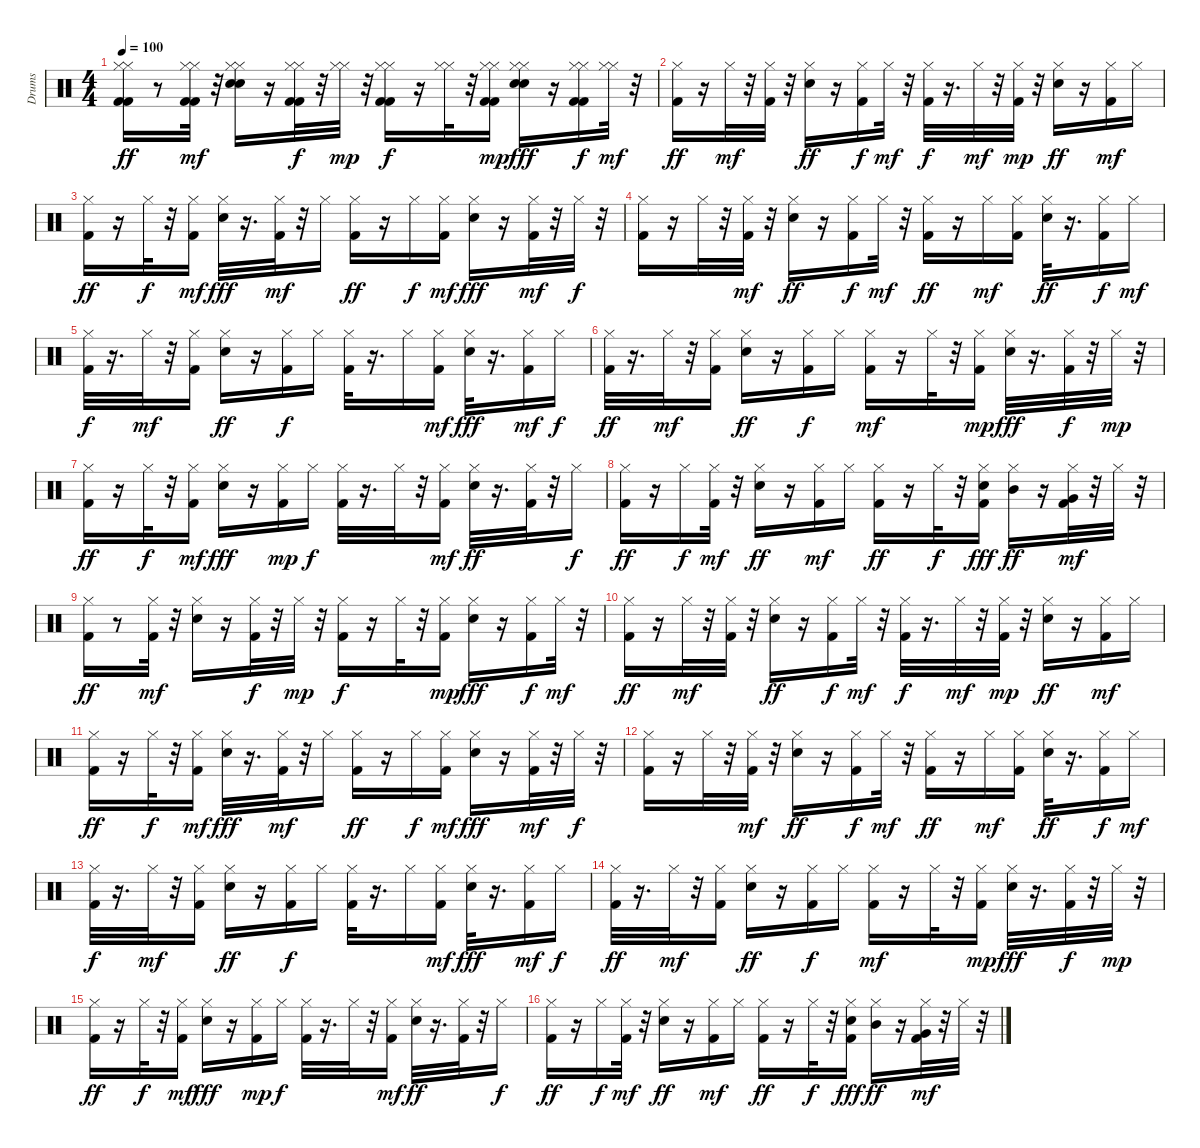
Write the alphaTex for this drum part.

\track ("Drums" "Drums") {instrument percussion}
\staff {score}
\articulation defaults
\ts (4 4)
\tempo 100
\clef neutral
\ks c
("Kick (hit) 2" "Kick (hit) 2" "Hi-Hat (closed)" "Hi-Hat (closed)").16{dy ff} r.8 ("Hi-Hat (closed)" "Kick (hit) 2" "Hi-Hat (closed)" "Kick (hit) 2").32{dy mf} r.32 ("Snare (hit) 2" "Snare (hit) 2" "Hi-Hat (closed)" "Hi-Hat (closed)").16 r.16 ("Kick (hit) 2" "Kick (hit) 2" "Hi-Hat (closed)" "Hi-Hat (closed)").32{dy f} r.32 ("Hi-Hat (closed)" "Hi-Hat (closed)").32{dy mp} r.32 ("Kick (hit) 2" "Kick (hit) 2" "Hi-Hat (closed)" "Hi-Hat (closed)").16{dy f} r.16 ("Hi-Hat (closed)" "Hi-Hat (closed)").32 r.32 ("Kick (hit) 2" "Kick (hit) 2" "Hi-Hat (closed)" "Hi-Hat (closed)").16{dy mp} ("Hi-Hat (closed)" "Hi-Hat (closed)" "Snare (hit) 2" "Snare (hit) 2").16{dy fff} r.16 ("Kick (hit) 2" "Kick (hit) 2" "Hi-Hat (closed)" "Hi-Hat (closed)").16{dy f} ("Hi-Hat (closed)" "Hi-Hat (closed)").32{dy mf} r.32 |
("Kick (hit) 2" "Hi-Hat (closed)").16{dy ff} r.16 "Hi-Hat (closed)".32{dy mf} r.32 ("Kick (hit) 2" "Hi-Hat (closed)").32 r.32 ("Hi-Hat (closed)" "Snare (hit) 2").16{dy ff} r.16 ("Kick (hit) 2" "Hi-Hat (closed)").16{dy f} "Hi-Hat (closed)".32{dy mf} r.32 ("Kick (hit) 2" "Hi-Hat (closed)").32{dy f} r.16{d} "Hi-Hat (closed)".32{dy mf} r.32 ("Kick (hit) 2" "Hi-Hat (closed)").32{dy mp} r.32 ("Hi-Hat (closed)" "Snare (hit) 2").16{dy ff} r.16 ("Hi-Hat (closed)" "Kick (hit) 2").16{dy mf} "Hi-Hat (closed)".16 |
("Hi-Hat (closed)" "Kick (hit) 2").16{dy ff} r.16 "Hi-Hat (closed)".32{dy f} r.32 ("Kick (hit) 2" "Hi-Hat (closed)").16{dy mf} ("Hi-Hat (closed)" "Snare (hit) 2").32{dy fff} r.16{d} ("Kick (hit) 2" "Hi-Hat (closed)").32{dy mf} r.32 "Hi-Hat (closed)".16 ("Hi-Hat (closed)" "Kick (hit) 2").16{dy ff} r.16 "Hi-Hat (closed)".16{dy f} ("Kick (hit) 2" "Hi-Hat (closed)").16{dy mf} ("Hi-Hat (closed)" "Snare (hit) 2").16{dy fff} r.16 ("Kick (hit) 2" "Hi-Hat (closed)").32{dy mf} r.32 "Hi-Hat (closed)".32{dy f} r.32 |
("Hi-Hat (closed)" "Kick (hit) 2").16 r.16 "Hi-Hat (closed)".32 r.32 ("Kick (hit) 2" "Hi-Hat (closed)").32{dy mf} r.32 ("Hi-Hat (closed)" "Snare (hit) 2").16{dy ff} r.16 ("Kick (hit) 2" "Hi-Hat (closed)").16{dy f} "Hi-Hat (closed)".32{dy mf} r.32 ("Kick (hit) 2" "Hi-Hat (closed)").16{dy ff} r.16 "Hi-Hat (closed)".16{dy mf} ("Kick (hit) 2" "Hi-Hat (closed)").16 ("Hi-Hat (closed)" "Snare (hit) 2").32{dy ff} r.16{d} ("Kick (hit) 2" "Hi-Hat (closed)").16{dy f} "Hi-Hat (closed)".16{dy mf} |
("Kick (hit) 2" "Hi-Hat (closed)").32{dy f} r.16{d} "Hi-Hat (closed)".32{dy mf} r.32 ("Kick (hit) 2" "Hi-Hat (closed)").16 ("Hi-Hat (closed)" "Snare (hit) 2").16{dy ff} r.16 ("Kick (hit) 2" "Hi-Hat (closed)").16{dy f} "Hi-Hat (closed)".16 ("Kick (hit) 2" "Hi-Hat (closed)").32 r.16{d} "Hi-Hat (closed)".16 ("Kick (hit) 2" "Hi-Hat (closed)").16{dy mf} ("Hi-Hat (closed)" "Snare (hit) 2").32{dy fff} r.16{d} ("Kick (hit) 2" "Hi-Hat (closed)").16{dy mf} "Hi-Hat (closed)".16{dy f} |
("Kick (hit) 2" "Hi-Hat (closed)").32{dy ff} r.16{d} "Hi-Hat (closed)".32{dy mf} r.32 ("Kick (hit) 2" "Hi-Hat (closed)").16 ("Hi-Hat (closed)" "Snare (hit) 2").16{dy ff} r.16 ("Kick (hit) 2" "Hi-Hat (closed)").16{dy f} "Hi-Hat (closed)".16 ("Hi-Hat (closed)" "Kick (hit) 2").16{dy mf} r.16 "Hi-Hat (closed)".32 r.32 ("Kick (hit) 2" "Hi-Hat (closed)").16{dy mp} ("Hi-Hat (closed)" "Snare (hit) 2").32{dy fff} r.16{d} ("Kick (hit) 2" "Hi-Hat (closed)").32{dy f} r.32 "Hi-Hat (closed)".32{dy mp} r.32 |
("Kick (hit) 2" "Hi-Hat (closed)").16{dy ff} r.16 "Hi-Hat (closed)".32{dy f} r.32 ("Hi-Hat (closed)" "Kick (hit) 2").16{dy mf} ("Hi-Hat (closed)" "Snare (hit) 2").16{dy fff} r.16 ("Kick (hit) 2" "Hi-Hat (closed)").16{dy mp} "Hi-Hat (closed)".16{dy f} ("Kick (hit) 2" "Hi-Hat (closed)").32 r.16{d} "Hi-Hat (closed)".32 r.32 ("Kick (hit) 2" "Hi-Hat (closed)").16{dy mf} ("Hi-Hat (closed)" "Snare (hit) 2").32{dy ff} r.16{d} ("Kick (hit) 2" "Hi-Hat (closed)").32 r.32 "Hi-Hat (closed)".16{dy f} |
("Hi-Hat (closed)" "Kick (hit) 2").16{dy ff} r.16 "Hi-Hat (closed)".16{dy f} ("Kick (hit) 2" "Hi-Hat (closed)").32{dy mf} r.32 ("Hi-Hat (closed)" "Snare (hit) 2").16{dy ff} r.16 ("Hi-Hat (closed)" "Kick (hit) 2").16{dy mf} "Hi-Hat (closed)".16 ("Hi-Hat (closed)" "Kick (hit) 2").16{dy ff} r.16 "Hi-Hat (closed)".32{dy f} r.32 ("Hi-Hat (closed)" "Kick (hit) 2" "Snare (hit) 2").16{dy fff} ("Hi-Hat (closed)" "Mid Tom (hit)").16{dy ff} r.16 ("Kick (hit) 2" "Hi-Hat (closed)" "Very Low Tom (hit)").32{dy mf} r.32 "Hi-Hat (closed)".32 r.32 |
("Kick (hit) 2" "Hi-Hat (closed)").16{dy ff} r.8 ("Hi-Hat (closed)" "Kick (hit) 2").32{dy mf} r.32 ("Snare (hit) 2" "Hi-Hat (closed)").16 r.16 ("Kick (hit) 2" "Hi-Hat (closed)").32{dy f} r.32 "Hi-Hat (closed)".32{dy mp} r.32 ("Kick (hit) 2" "Hi-Hat (closed)").16{dy f} r.16 "Hi-Hat (closed)".32 r.32 ("Kick (hit) 2" "Hi-Hat (closed)").16{dy mp} ("Hi-Hat (closed)" "Snare (hit) 2").16{dy fff} r.16 ("Kick (hit) 2" "Hi-Hat (closed)").16{dy f} "Hi-Hat (closed)".32{dy mf} r.32 |
("Kick (hit) 2" "Hi-Hat (closed)").16{dy ff} r.16 "Hi-Hat (closed)".32{dy mf} r.32 ("Kick (hit) 2" "Hi-Hat (closed)").32 r.32 ("Hi-Hat (closed)" "Snare (hit) 2").16{dy ff} r.16 ("Kick (hit) 2" "Hi-Hat (closed)").16{dy f} "Hi-Hat (closed)".32{dy mf} r.32 ("Kick (hit) 2" "Hi-Hat (closed)").32{dy f} r.16{d} "Hi-Hat (closed)".32{dy mf} r.32 ("Kick (hit) 2" "Hi-Hat (closed)").32{dy mp} r.32 ("Hi-Hat (closed)" "Snare (hit) 2").16{dy ff} r.16 ("Hi-Hat (closed)" "Kick (hit) 2").16{dy mf} "Hi-Hat (closed)".16 |
("Hi-Hat (closed)" "Kick (hit) 2").16{dy ff} r.16 "Hi-Hat (closed)".32{dy f} r.32 ("Kick (hit) 2" "Hi-Hat (closed)").16{dy mf} ("Hi-Hat (closed)" "Snare (hit) 2").32{dy fff} r.16{d} ("Kick (hit) 2" "Hi-Hat (closed)").32{dy mf} r.32 "Hi-Hat (closed)".16 ("Hi-Hat (closed)" "Kick (hit) 2").16{dy ff} r.16 "Hi-Hat (closed)".16{dy f} ("Kick (hit) 2" "Hi-Hat (closed)").16{dy mf} ("Hi-Hat (closed)" "Snare (hit) 2").16{dy fff} r.16 ("Kick (hit) 2" "Hi-Hat (closed)").32{dy mf} r.32 "Hi-Hat (closed)".32{dy f} r.32 |
("Hi-Hat (closed)" "Kick (hit) 2").16 r.16 "Hi-Hat (closed)".32 r.32 ("Kick (hit) 2" "Hi-Hat (closed)").32{dy mf} r.32 ("Hi-Hat (closed)" "Snare (hit) 2").16{dy ff} r.16 ("Kick (hit) 2" "Hi-Hat (closed)").16{dy f} "Hi-Hat (closed)".32{dy mf} r.32 ("Kick (hit) 2" "Hi-Hat (closed)").16{dy ff} r.16 "Hi-Hat (closed)".16{dy mf} ("Kick (hit) 2" "Hi-Hat (closed)").16 ("Hi-Hat (closed)" "Snare (hit) 2").32{dy ff} r.16{d} ("Kick (hit) 2" "Hi-Hat (closed)").16{dy f} "Hi-Hat (closed)".16{dy mf} |
("Kick (hit) 2" "Hi-Hat (closed)").32{dy f} r.16{d} "Hi-Hat (closed)".32{dy mf} r.32 ("Kick (hit) 2" "Hi-Hat (closed)").16 ("Hi-Hat (closed)" "Snare (hit) 2").16{dy ff} r.16 ("Kick (hit) 2" "Hi-Hat (closed)").16{dy f} "Hi-Hat (closed)".16 ("Kick (hit) 2" "Hi-Hat (closed)").32 r.16{d} "Hi-Hat (closed)".16 ("Kick (hit) 2" "Hi-Hat (closed)").16{dy mf} ("Hi-Hat (closed)" "Snare (hit) 2").32{dy fff} r.16{d} ("Kick (hit) 2" "Hi-Hat (closed)").16{dy mf} "Hi-Hat (closed)".16{dy f} |
("Kick (hit) 2" "Hi-Hat (closed)").32{dy ff} r.16{d} "Hi-Hat (closed)".32{dy mf} r.32 ("Kick (hit) 2" "Hi-Hat (closed)").16 ("Hi-Hat (closed)" "Snare (hit) 2").16{dy ff} r.16 ("Kick (hit) 2" "Hi-Hat (closed)").16{dy f} "Hi-Hat (closed)".16 ("Hi-Hat (closed)" "Kick (hit) 2").16{dy mf} r.16 "Hi-Hat (closed)".32 r.32 ("Kick (hit) 2" "Hi-Hat (closed)").16{dy mp} ("Hi-Hat (closed)" "Snare (hit) 2").32{dy fff} r.16{d} ("Kick (hit) 2" "Hi-Hat (closed)").32{dy f} r.32 "Hi-Hat (closed)".32{dy mp} r.32 |
("Kick (hit) 2" "Hi-Hat (closed)").16{dy ff} r.16 "Hi-Hat (closed)".32{dy f} r.32 ("Hi-Hat (closed)" "Kick (hit) 2").16{dy mf} ("Hi-Hat (closed)" "Snare (hit) 2").16{dy fff} r.16 ("Kick (hit) 2" "Hi-Hat (closed)").16{dy mp} "Hi-Hat (closed)".16{dy f} ("Kick (hit) 2" "Hi-Hat (closed)").32 r.16{d} "Hi-Hat (closed)".32 r.32 ("Kick (hit) 2" "Hi-Hat (closed)").16{dy mf} ("Hi-Hat (closed)" "Snare (hit) 2").32{dy ff} r.16{d} ("Kick (hit) 2" "Hi-Hat (closed)").32 r.32 "Hi-Hat (closed)".16{dy f} |
("Hi-Hat (closed)" "Kick (hit) 2").16{dy ff} r.16 "Hi-Hat (closed)".16{dy f} ("Kick (hit) 2" "Hi-Hat (closed)").32{dy mf} r.32 ("Hi-Hat (closed)" "Snare (hit) 2").16{dy ff} r.16 ("Hi-Hat (closed)" "Kick (hit) 2").16{dy mf} "Hi-Hat (closed)".16 ("Hi-Hat (closed)" "Kick (hit) 2").16{dy ff} r.16 "Hi-Hat (closed)".32{dy f} r.32 ("Hi-Hat (closed)" "Kick (hit) 2" "Snare (hit) 2").16{dy fff} ("Hi-Hat (closed)" "Mid Tom (hit)").16{dy ff} r.16 ("Kick (hit) 2" "Hi-Hat (closed)" "Very Low Tom (hit)").32{dy mf} r.32 "Hi-Hat (closed)".32 r.32
